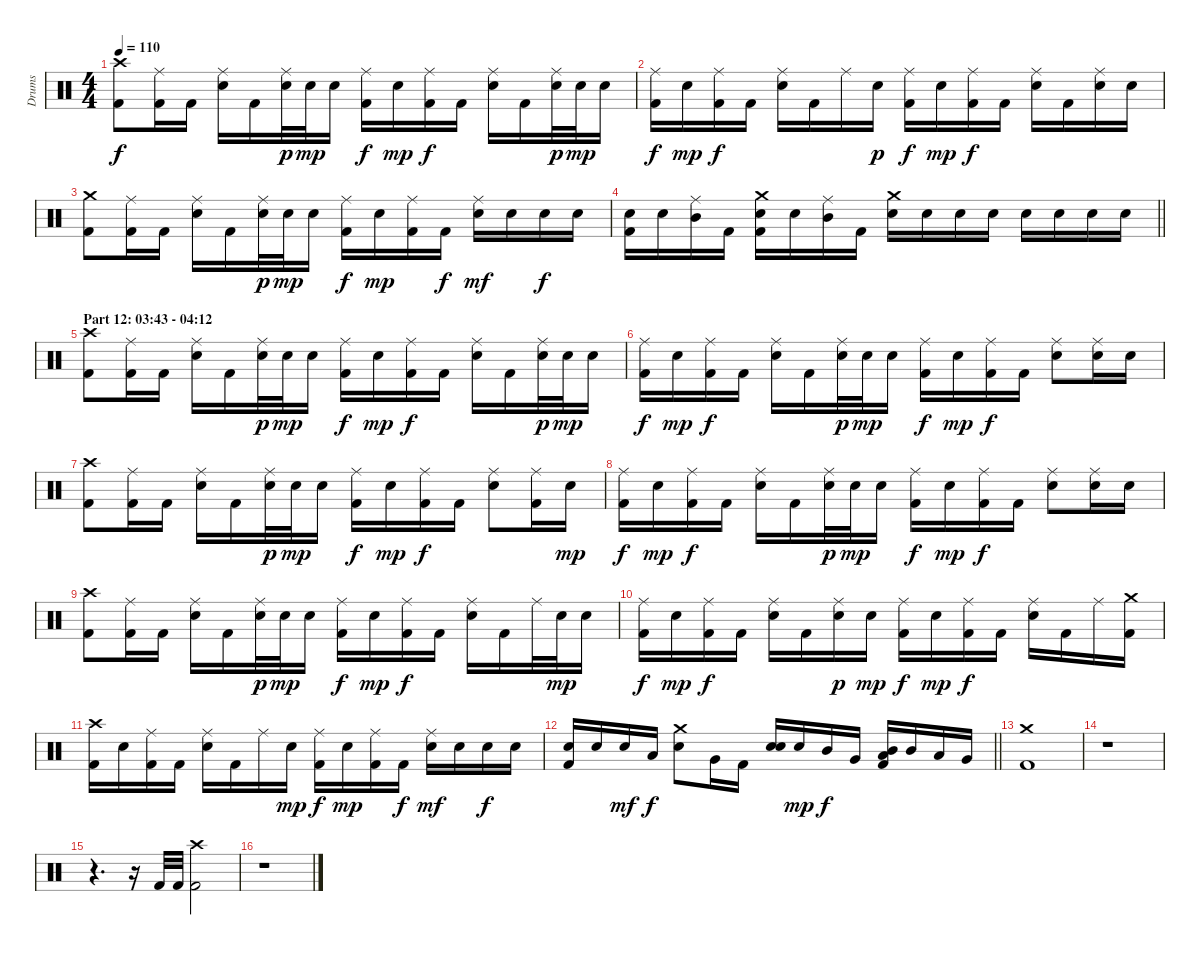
\track ("Drums" "Drums") {instrument percussion}
\staff {score}
\articulation defaults
\ts (4 4)
\tempo 110
\clef neutral
\ks c
("Crash high (hit)" "Kick (hit) 2").8{dy f} ("Ride (middle)" "Kick (hit) 2").16 "Kick (hit) 2".16 ("Ride (middle)" "Electric Snare (hit)").16 "Kick (hit) 2".16 ("Ride (middle)" "Electric Snare (hit)").32{dy p} "Electric Snare (hit)".32{dy mp} "Electric Snare (hit)".16 ("Ride (middle)" "Kick (hit) 2").16{dy f} "Electric Snare (hit)".16{dy mp} ("Ride (middle)" "Kick (hit) 2").16{dy f} "Kick (hit) 2".16 ("Ride (middle)" "Electric Snare (hit)").16 "Kick (hit) 2".16 ("Ride (middle)" "Electric Snare (hit)").32{dy p} "Electric Snare (hit)".32{dy mp} "Electric Snare (hit)".16 |
("Ride (middle)" "Kick (hit) 2").16{dy f} "Electric Snare (hit)".16{dy mp} ("Ride (middle)" "Kick (hit) 2").16{dy f} "Kick (hit) 2".16 ("Ride (middle)" "Electric Snare (hit)").16 "Kick (hit) 2".16 "Ride (middle)".16 "Electric Snare (hit)".16{dy p} ("Ride (middle)" "Kick (hit) 2").16{dy f} "Electric Snare (hit)".16{dy mp} ("Ride (middle)" "Kick (hit) 2").16{dy f} "Kick (hit) 2".16 ("Ride (middle)" "Electric Snare (hit)").16 "Kick (hit) 2".16 ("Ride (middle)" "Electric Snare (hit)").16 "Electric Snare (hit)".16 |
("Crash medium (hit)" "Kick (hit) 2").8 ("Ride (middle)" "Kick (hit) 2").16 "Kick (hit) 2".16 ("Ride (middle)" "Electric Snare (hit)").16 "Kick (hit) 2".16 ("Ride (middle)" "Electric Snare (hit)").32{dy p} "Electric Snare (hit)".32{dy mp} "Electric Snare (hit)".16 ("Ride (middle)" "Kick (hit) 2").16{dy f} "Electric Snare (hit)".16{dy mp} ("Ride (middle)" "Kick (hit) 2").16 "Kick (hit) 2".16{dy f} ("Ride (middle)" "Electric Snare (hit)").16{dy mf} "Electric Snare (hit)".16 "Electric Snare (hit)".16{dy f} "Electric Snare (hit)".16 |
\barLineRight lightlight
("Electric Snare (hit)" "Kick (hit) 2").16 "Electric Snare (hit)".16 ("Ride (middle)" "Mid Tom (hit)").16 "Kick (hit) 2".16 ("Crash medium (hit)" "Electric Snare (hit)" "Kick (hit) 2").16 "Electric Snare (hit)".16 ("Ride (middle)" "Mid Tom (hit)").16 "Kick (hit) 2".16 ("Crash medium (hit)" "Electric Snare (hit)").16 "Electric Snare (hit)".16 "Electric Snare (hit)".16 "Electric Snare (hit)".16 "Electric Snare (hit)".16 "Electric Snare (hit)".16 "Electric Snare (hit)".16 "Electric Snare (hit)".16 |
\section ("" "Part 12: 03:43 - 04:12")
("Crash high (hit)" "Kick (hit) 2").8 ("Ride (middle)" "Kick (hit) 2").16 "Kick (hit) 2".16 ("Ride (middle)" "Electric Snare (hit)").16 "Kick (hit) 2".16 ("Ride (middle)" "Electric Snare (hit)").32{dy p} "Electric Snare (hit)".32{dy mp} "Electric Snare (hit)".16 ("Ride (middle)" "Kick (hit) 2").16{dy f} "Electric Snare (hit)".16{dy mp} ("Ride (middle)" "Kick (hit) 2").16{dy f} "Kick (hit) 2".16 ("Ride (middle)" "Electric Snare (hit)").16 "Kick (hit) 2".16 ("Ride (middle)" "Electric Snare (hit)").32{dy p} "Electric Snare (hit)".32{dy mp} "Electric Snare (hit)".16 |
("Ride (middle)" "Kick (hit) 2").16{dy f} "Electric Snare (hit)".16{dy mp} ("Ride (middle)" "Kick (hit) 2").16{dy f} "Kick (hit) 2".16 ("Ride (middle)" "Electric Snare (hit)").16 "Kick (hit) 2".16 ("Ride (middle)" "Electric Snare (hit)").32{dy p} "Electric Snare (hit)".32{dy mp} "Electric Snare (hit)".16 ("Ride (middle)" "Kick (hit) 2").16{dy f} "Electric Snare (hit)".16{dy mp} ("Ride (middle)" "Kick (hit) 2").16{dy f} "Kick (hit) 2".16 ("Ride (middle)" "Electric Snare (hit)").8 ("Ride (middle)" "Electric Snare (hit)").16 "Electric Snare (hit)".16 |
("Crash high (hit)" "Kick (hit) 2").8 ("Ride (middle)" "Kick (hit) 2").16 "Kick (hit) 2".16 ("Ride (middle)" "Electric Snare (hit)").16 "Kick (hit) 2".16 ("Ride (middle)" "Electric Snare (hit)").32{dy p} "Electric Snare (hit)".32{dy mp} "Electric Snare (hit)".16 ("Ride (middle)" "Kick (hit) 2").16{dy f} "Electric Snare (hit)".16{dy mp} ("Ride (middle)" "Kick (hit) 2").16{dy f} "Kick (hit) 2".16 ("Ride (middle)" "Electric Snare (hit)").8 ("Ride (middle)" "Kick (hit) 2").16 "Electric Snare (hit)".16{dy mp} |
("Ride (middle)" "Kick (hit) 2").16{dy f} "Electric Snare (hit)".16{dy mp} ("Ride (middle)" "Kick (hit) 2").16{dy f} "Kick (hit) 2".16 ("Ride (middle)" "Electric Snare (hit)").16 "Kick (hit) 2".16 ("Ride (middle)" "Electric Snare (hit)").32{dy p} "Electric Snare (hit)".32{dy mp} "Electric Snare (hit)".16 ("Ride (middle)" "Kick (hit) 2").16{dy f} "Electric Snare (hit)".16{dy mp} ("Ride (middle)" "Kick (hit) 2").16{dy f} "Kick (hit) 2".16 ("Ride (middle)" "Electric Snare (hit)").8 ("Ride (middle)" "Electric Snare (hit)").16 "Electric Snare (hit)".16 |
("Crash high (hit)" "Kick (hit) 2").8 ("Ride (middle)" "Kick (hit) 2").16 "Kick (hit) 2".16 ("Ride (middle)" "Electric Snare (hit)").16 "Kick (hit) 2".16 ("Ride (middle)" "Electric Snare (hit)").32{dy p} "Electric Snare (hit)".32{dy mp} "Electric Snare (hit)".16 ("Ride (middle)" "Kick (hit) 2").16{dy f} "Electric Snare (hit)".16{dy mp} ("Ride (middle)" "Kick (hit) 2").16{dy f} "Kick (hit) 2".16 ("Ride (middle)" "Electric Snare (hit)").16 "Kick (hit) 2".16 "Ride (middle)".32 "Electric Snare (hit)".32{dy mp} "Electric Snare (hit)".16 |
("Ride (middle)" "Kick (hit) 2").16{dy f} "Electric Snare (hit)".16{dy mp} ("Ride (middle)" "Kick (hit) 2").16{dy f} "Kick (hit) 2".16 ("Ride (middle)" "Electric Snare (hit)").16 "Kick (hit) 2".16 ("Ride (middle)" "Electric Snare (hit)").16{dy p} "Electric Snare (hit)".16{dy mp} ("Ride (middle)" "Kick (hit) 2").16{dy f} "Electric Snare (hit)".16{dy mp} ("Ride (middle)" "Kick (hit) 2").16{dy f} "Kick (hit) 2".16 ("Ride (middle)" "Electric Snare (hit)").16 "Kick (hit) 2".16 "Ride (middle)".16 ("Crash medium (hit)" "Kick (hit) 2").16 |
("Crash high (hit)" "Kick (hit) 2").16 "Electric Snare (hit)".16 ("Ride (middle)" "Kick (hit) 2").16 "Kick (hit) 2".16 ("Ride (middle)" "Electric Snare (hit)").16 "Kick (hit) 2".16 "Ride (middle)".16 "Electric Snare (hit)".16{dy mp} ("Ride (middle)" "Kick (hit) 2").16{dy f} "Electric Snare (hit)".16{dy mp} ("Ride (middle)" "Kick (hit) 2").16 "Kick (hit) 2".16{dy f} ("Ride (middle)" "Electric Snare (hit)").16{dy mf} "Electric Snare (hit)".16 "Electric Snare (hit)".16{dy f} "Electric Snare (hit)".16 |
\barLineRight lightlight
("Electric Snare (hit)" "Kick (hit) 2").16 "Electric Snare (hit)".16 "Electric Snare (hit)".16{dy mf} "Low Tom (hit)".16{dy f} ("Crash medium (hit)" "Electric Snare (hit)").8 "Very Low Tom (hit)".16 "Kick (hit) 2".16 ("Electric Snare (hit)" "Electric Snare (hit)").16{bd 120} "Electric Snare (hit)".16{dy mp} "Mid Tom (hit)".16{dy f} "Very Low Tom (hit)".16 ("Mid Tom (hit)" "Low Tom (hit)" "Kick (hit) 2").16{bd 60} "Mid Tom (hit)".16 "Low Tom (hit)".16 "Very Low Tom (hit)".16 |
("Crash medium (hit)" "Kick (hit) 2").1 |
r.1 |
r.4{d} r.16 "Kick (hit) 2".32 "Kick (hit) 2".32 ("Crash high (hit)" "Kick (hit) 2").2 |
r.1
